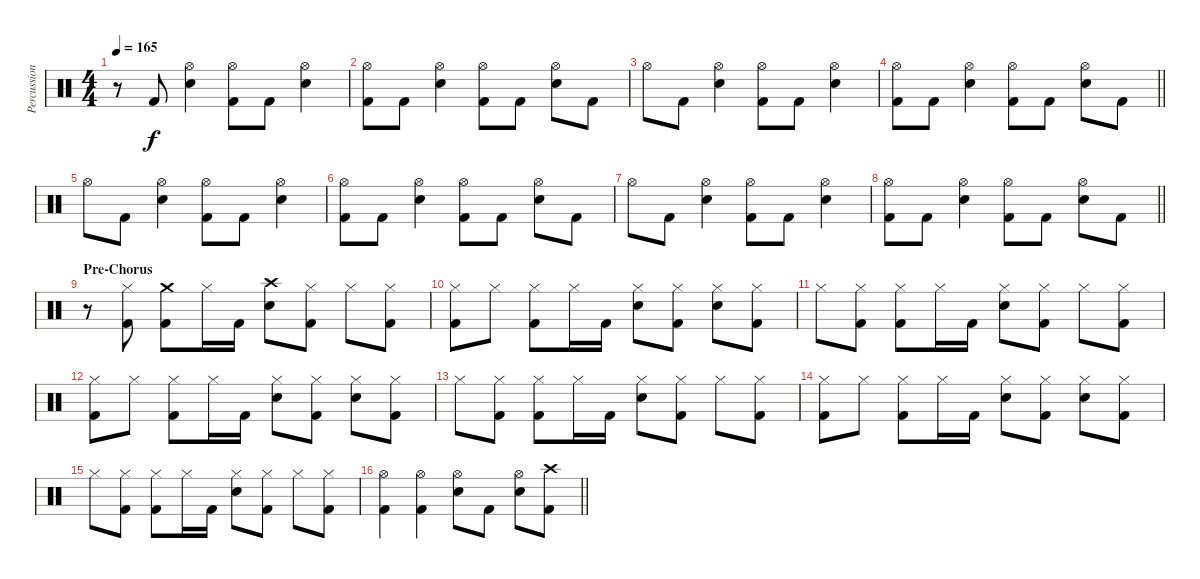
\track ("Percussion" "Percussion") {instrument percussion}
\staff {score}
\articulation defaults
\ts (4 4)
\tempo 165
\clef neutral
\ks c
r.8{dy f} "Kick (hit) 2".8 ("Hi-Hat (open)" "Electric Snare (hit)").4 ("Hi-Hat (open)" "Kick (hit) 2").8 "Kick (hit) 2".8 ("Hi-Hat (open)" "Electric Snare (hit)").4 |
("Hi-Hat (open)" "Kick (hit) 2").8 "Kick (hit) 2".8 ("Hi-Hat (open)" "Electric Snare (hit)").4 ("Hi-Hat (open)" "Kick (hit) 2").8 "Kick (hit) 2".8 ("Hi-Hat (open)" "Electric Snare (hit)").8 "Kick (hit) 2".8 |
"Hi-Hat (open)".8 "Kick (hit) 2".8 ("Hi-Hat (open)" "Electric Snare (hit)").4 ("Hi-Hat (open)" "Kick (hit) 2").8 "Kick (hit) 2".8 ("Hi-Hat (open)" "Electric Snare (hit)").4 |
\barLineRight lightlight
("Hi-Hat (open)" "Kick (hit) 2").8 "Kick (hit) 2".8 ("Hi-Hat (open)" "Electric Snare (hit)").4 ("Hi-Hat (open)" "Kick (hit) 2").8 "Kick (hit) 2".8 ("Hi-Hat (open)" "Electric Snare (hit)").8 "Kick (hit) 2".8 |
"Hi-Hat (open)".8 "Kick (hit) 2".8 ("Hi-Hat (open)" "Electric Snare (hit)").4 ("Hi-Hat (open)" "Kick (hit) 2").8 "Kick (hit) 2".8 ("Hi-Hat (open)" "Electric Snare (hit)").4 |
("Hi-Hat (open)" "Kick (hit) 2").8 "Kick (hit) 2".8 ("Hi-Hat (open)" "Electric Snare (hit)").4 ("Hi-Hat (open)" "Kick (hit) 2").8 "Kick (hit) 2".8 ("Hi-Hat (open)" "Electric Snare (hit)").8 "Kick (hit) 2".8 |
"Hi-Hat (open)".8 "Kick (hit) 2".8 ("Hi-Hat (open)" "Electric Snare (hit)").4 ("Hi-Hat (open)" "Kick (hit) 2").8 "Kick (hit) 2".8 ("Hi-Hat (open)" "Electric Snare (hit)").4 |
\barLineRight lightlight
("Hi-Hat (open)" "Kick (hit) 2").8 "Kick (hit) 2".8 ("Hi-Hat (open)" "Electric Snare (hit)").4 ("Hi-Hat (open)" "Kick (hit) 2").8 "Kick (hit) 2".8 ("Hi-Hat (open)" "Electric Snare (hit)").8 "Kick (hit) 2".8 |
\section ("" "Pre-Chorus")
r.8 ("Hi-Hat (closed)" "Kick (hit) 2").8 ("Crash medium (hit)" "Kick (hit) 2").8 "Hi-Hat (closed)".16 "Kick (hit) 2".16 ("Crash high (hit)" "Electric Snare (hit)").8 ("Hi-Hat (closed)" "Kick (hit) 2").8 "Hi-Hat (closed)".8 ("Hi-Hat (closed)" "Kick (hit) 2").8 |
("Hi-Hat (closed)" "Kick (hit) 2").8 "Hi-Hat (closed)".8 ("Hi-Hat (closed)" "Kick (hit) 2").8 "Hi-Hat (closed)".16 "Kick (hit) 2".16 ("Hi-Hat (closed)" "Electric Snare (hit)").8 ("Hi-Hat (closed)" "Kick (hit) 2").8 ("Hi-Hat (closed)" "Electric Snare (hit)").8 ("Hi-Hat (closed)" "Kick (hit) 2").8 |
"Hi-Hat (closed)".8 ("Hi-Hat (closed)" "Kick (hit) 2").8 ("Hi-Hat (closed)" "Kick (hit) 2").8 "Hi-Hat (closed)".16 "Kick (hit) 2".16 ("Hi-Hat (closed)" "Electric Snare (hit)").8 ("Hi-Hat (closed)" "Kick (hit) 2").8 "Hi-Hat (closed)".8 ("Hi-Hat (closed)" "Kick (hit) 2").8 |
("Hi-Hat (closed)" "Kick (hit) 2").8 "Hi-Hat (closed)".8 ("Hi-Hat (closed)" "Kick (hit) 2").8 "Hi-Hat (closed)".16 "Kick (hit) 2".16 ("Hi-Hat (closed)" "Electric Snare (hit)").8 ("Hi-Hat (closed)" "Kick (hit) 2").8 ("Hi-Hat (closed)" "Electric Snare (hit)").8 ("Hi-Hat (closed)" "Kick (hit) 2").8 |
"Hi-Hat (closed)".8 ("Hi-Hat (closed)" "Kick (hit) 2").8 ("Hi-Hat (closed)" "Kick (hit) 2").8 "Hi-Hat (closed)".16 "Kick (hit) 2".16 ("Hi-Hat (closed)" "Electric Snare (hit)").8 ("Hi-Hat (closed)" "Kick (hit) 2").8 "Hi-Hat (closed)".8 ("Hi-Hat (closed)" "Kick (hit) 2").8 |
("Hi-Hat (closed)" "Kick (hit) 2").8 "Hi-Hat (closed)".8 ("Hi-Hat (closed)" "Kick (hit) 2").8 "Hi-Hat (closed)".16 "Kick (hit) 2".16 ("Hi-Hat (closed)" "Electric Snare (hit)").8 ("Hi-Hat (closed)" "Kick (hit) 2").8 ("Hi-Hat (closed)" "Electric Snare (hit)").8 ("Hi-Hat (closed)" "Kick (hit) 2").8 |
"Hi-Hat (closed)".8 ("Hi-Hat (closed)" "Kick (hit) 2").8 ("Hi-Hat (closed)" "Kick (hit) 2").8 "Hi-Hat (closed)".16 "Kick (hit) 2".16 ("Hi-Hat (closed)" "Electric Snare (hit)").8 ("Hi-Hat (closed)" "Kick (hit) 2").8 "Hi-Hat (closed)".8 ("Hi-Hat (closed)" "Kick (hit) 2").8 |
\barLineRight lightlight
("Hi-Hat (open)" "Kick (hit) 2").4 ("Hi-Hat (open)" "Kick (hit) 2").4 ("Hi-Hat (open)" "Electric Snare (hit)").8 "Kick (hit) 2".8 ("Hi-Hat (open)" "Electric Snare (hit)").8 ("Crash high (hit)" "Kick (hit) 2").8
